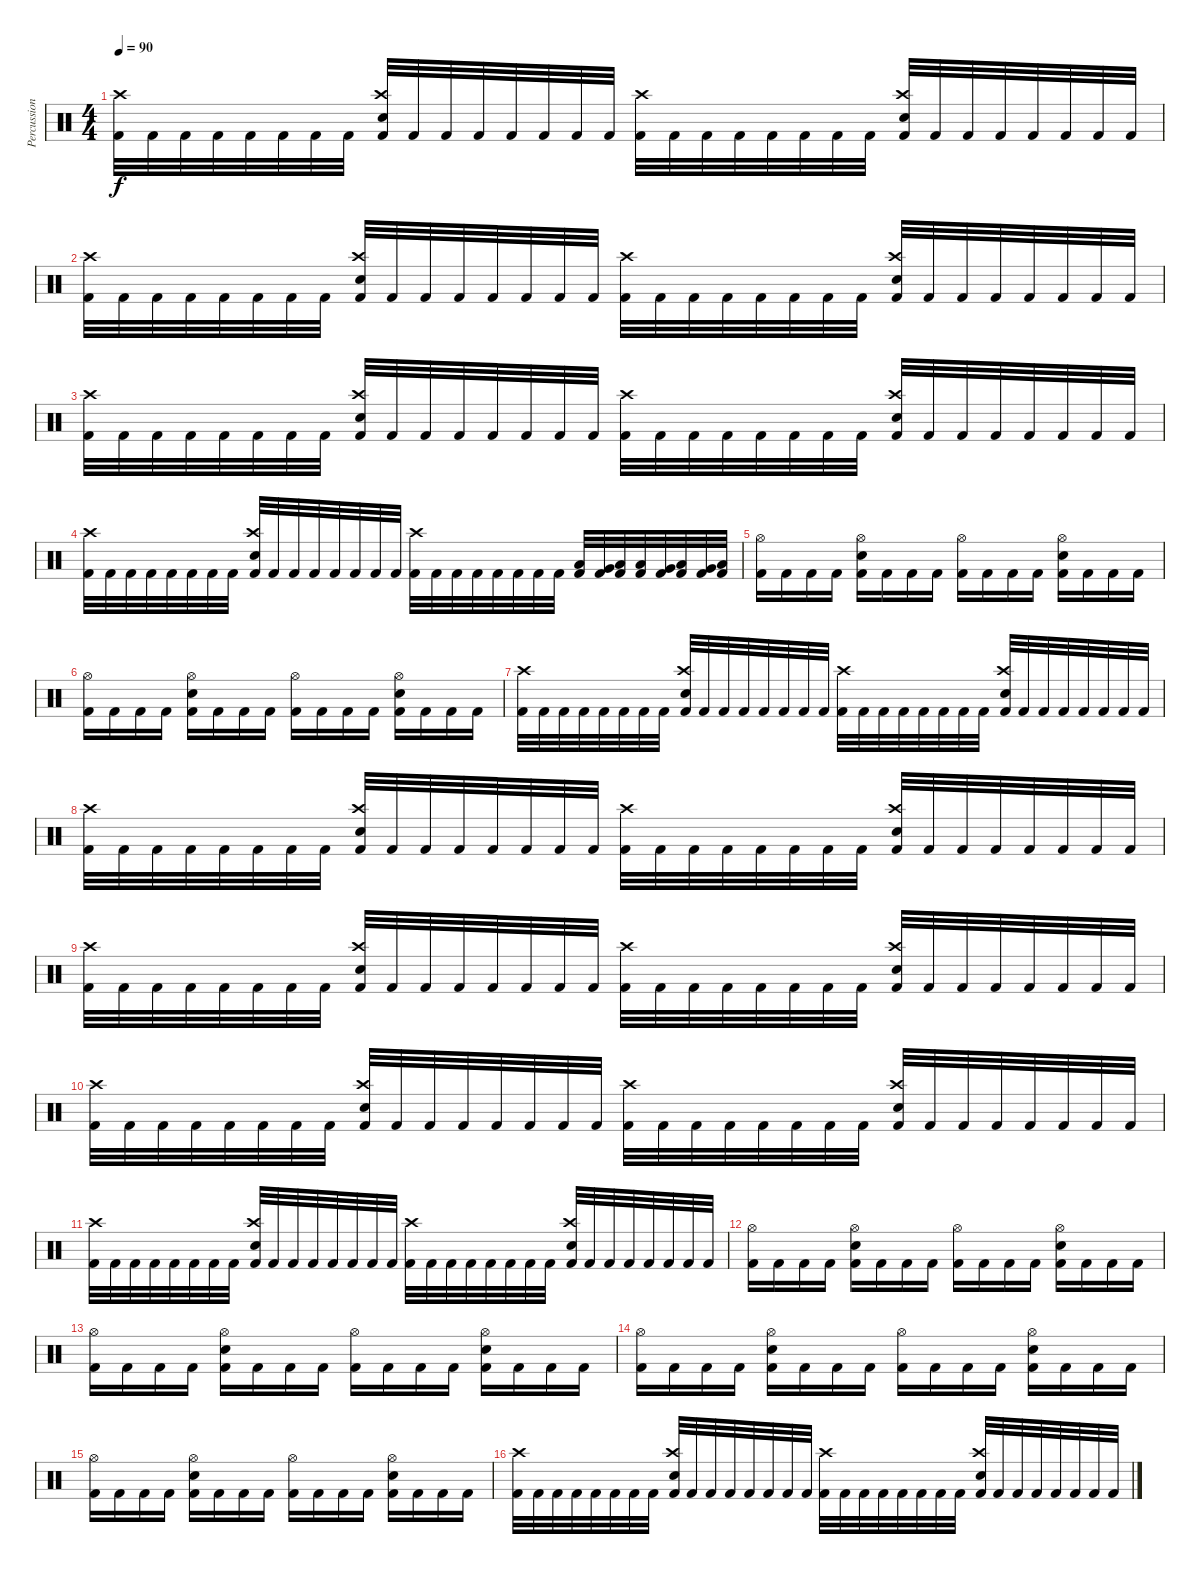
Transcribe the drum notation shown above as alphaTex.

\track ("Percussion" "Percussion") {instrument percussion}
\staff {score}
\articulation defaults
\ts (4 4)
\tempo 90
\clef neutral
\ks c
("Kick (hit) 2" "Crash high (hit)").32{dy f} "Kick (hit) 2".32 "Kick (hit) 2".32 "Kick (hit) 2".32 "Kick (hit) 2".32 "Kick (hit) 2".32 "Kick (hit) 2".32 "Kick (hit) 2".32 ("Kick (hit) 2" "Crash high (hit)" "Electric Snare (hit)").32 "Kick (hit) 2".32 "Kick (hit) 2".32 "Kick (hit) 2".32 "Kick (hit) 2".32 "Kick (hit) 2".32 "Kick (hit) 2".32 "Kick (hit) 2".32 ("Kick (hit) 2" "Crash high (hit)").32 "Kick (hit) 2".32 "Kick (hit) 2".32 "Kick (hit) 2".32 "Kick (hit) 2".32 "Kick (hit) 2".32 "Kick (hit) 2".32 "Kick (hit) 2".32 ("Kick (hit) 2" "Crash high (hit)" "Electric Snare (hit)").32 "Kick (hit) 2".32 "Kick (hit) 2".32 "Kick (hit) 2".32 "Kick (hit) 2".32 "Kick (hit) 2".32 "Kick (hit) 2".32 "Kick (hit) 2".32 |
("Kick (hit) 2" "Crash high (hit)").32 "Kick (hit) 2".32 "Kick (hit) 2".32 "Kick (hit) 2".32 "Kick (hit) 2".32 "Kick (hit) 2".32 "Kick (hit) 2".32 "Kick (hit) 2".32 ("Kick (hit) 2" "Crash high (hit)" "Electric Snare (hit)").32 "Kick (hit) 2".32 "Kick (hit) 2".32 "Kick (hit) 2".32 "Kick (hit) 2".32 "Kick (hit) 2".32 "Kick (hit) 2".32 "Kick (hit) 2".32 ("Kick (hit) 2" "Crash high (hit)").32 "Kick (hit) 2".32 "Kick (hit) 2".32 "Kick (hit) 2".32 "Kick (hit) 2".32 "Kick (hit) 2".32 "Kick (hit) 2".32 "Kick (hit) 2".32 ("Kick (hit) 2" "Crash high (hit)" "Electric Snare (hit)").32 "Kick (hit) 2".32 "Kick (hit) 2".32 "Kick (hit) 2".32 "Kick (hit) 2".32 "Kick (hit) 2".32 "Kick (hit) 2".32 "Kick (hit) 2".32 |
("Kick (hit) 2" "Crash high (hit)").32 "Kick (hit) 2".32 "Kick (hit) 2".32 "Kick (hit) 2".32 "Kick (hit) 2".32 "Kick (hit) 2".32 "Kick (hit) 2".32 "Kick (hit) 2".32 ("Kick (hit) 2" "Crash high (hit)" "Electric Snare (hit)").32 "Kick (hit) 2".32 "Kick (hit) 2".32 "Kick (hit) 2".32 "Kick (hit) 2".32 "Kick (hit) 2".32 "Kick (hit) 2".32 "Kick (hit) 2".32 ("Kick (hit) 2" "Crash high (hit)").32 "Kick (hit) 2".32 "Kick (hit) 2".32 "Kick (hit) 2".32 "Kick (hit) 2".32 "Kick (hit) 2".32 "Kick (hit) 2".32 "Kick (hit) 2".32 ("Kick (hit) 2" "Crash high (hit)" "Electric Snare (hit)").32 "Kick (hit) 2".32 "Kick (hit) 2".32 "Kick (hit) 2".32 "Kick (hit) 2".32 "Kick (hit) 2".32 "Kick (hit) 2".32 "Kick (hit) 2".32 |
("Kick (hit) 2" "Crash high (hit)").32 "Kick (hit) 2".32 "Kick (hit) 2".32 "Kick (hit) 2".32 "Kick (hit) 2".32 "Kick (hit) 2".32 "Kick (hit) 2".32 "Kick (hit) 2".32 ("Kick (hit) 2" "Crash high (hit)" "Electric Snare (hit)").32 "Kick (hit) 2".32 "Kick (hit) 2".32 "Kick (hit) 2".32 "Kick (hit) 2".32 "Kick (hit) 2".32 "Kick (hit) 2".32 "Kick (hit) 2".32 ("Kick (hit) 2" "Crash high (hit)").32 "Kick (hit) 2".32 "Kick (hit) 2".32 "Kick (hit) 2".32 "Kick (hit) 2".32 "Kick (hit) 2".32 "Kick (hit) 2".32 "Kick (hit) 2".32 ("Kick (hit) 2" "Low Tom (hit)").32 ("Kick (hit) 2" "Very Low Tom (hit)").32 ("Kick (hit) 2" "Low Floor Tom (hit)").32 ("Kick (hit) 2" "Low Tom (hit)").32 ("Kick (hit) 2" "Very Low Tom (hit)").32 ("Kick (hit) 2" "Low Floor Tom (hit)").32 ("Kick (hit) 2" "Very Low Tom (hit)").32 ("Kick (hit) 2" "Low Floor Tom (hit)").32 |
("Kick (hit) 2" "Hi-Hat (open)").16 "Kick (hit) 2".16 "Kick (hit) 2".16 "Kick (hit) 2".16 ("Kick (hit) 2" "Hi-Hat (open)" "Electric Snare (hit)").16 "Kick (hit) 2".16 "Kick (hit) 2".16 "Kick (hit) 2".16 ("Kick (hit) 2" "Hi-Hat (open)").16 "Kick (hit) 2".16 "Kick (hit) 2".16 "Kick (hit) 2".16 ("Kick (hit) 2" "Hi-Hat (open)" "Electric Snare (hit)").16 "Kick (hit) 2".16 "Kick (hit) 2".16 "Kick (hit) 2".16 |
("Kick (hit) 2" "Hi-Hat (open)").16 "Kick (hit) 2".16 "Kick (hit) 2".16 "Kick (hit) 2".16 ("Kick (hit) 2" "Hi-Hat (open)" "Electric Snare (hit)").16 "Kick (hit) 2".16 "Kick (hit) 2".16 "Kick (hit) 2".16 ("Kick (hit) 2" "Hi-Hat (open)").16 "Kick (hit) 2".16 "Kick (hit) 2".16 "Kick (hit) 2".16 ("Kick (hit) 2" "Hi-Hat (open)" "Electric Snare (hit)").16 "Kick (hit) 2".16 "Kick (hit) 2".16 "Kick (hit) 2".16 |
("Kick (hit) 2" "Crash high (hit)").32 "Kick (hit) 2".32 "Kick (hit) 2".32 "Kick (hit) 2".32 "Kick (hit) 2".32 "Kick (hit) 2".32 "Kick (hit) 2".32 "Kick (hit) 2".32 ("Kick (hit) 2" "Crash high (hit)" "Electric Snare (hit)").32 "Kick (hit) 2".32 "Kick (hit) 2".32 "Kick (hit) 2".32 "Kick (hit) 2".32 "Kick (hit) 2".32 "Kick (hit) 2".32 "Kick (hit) 2".32 ("Kick (hit) 2" "Crash high (hit)").32 "Kick (hit) 2".32 "Kick (hit) 2".32 "Kick (hit) 2".32 "Kick (hit) 2".32 "Kick (hit) 2".32 "Kick (hit) 2".32 "Kick (hit) 2".32 ("Kick (hit) 2" "Crash high (hit)" "Electric Snare (hit)").32 "Kick (hit) 2".32 "Kick (hit) 2".32 "Kick (hit) 2".32 "Kick (hit) 2".32 "Kick (hit) 2".32 "Kick (hit) 2".32 "Kick (hit) 2".32 |
("Kick (hit) 2" "Crash high (hit)").32 "Kick (hit) 2".32 "Kick (hit) 2".32 "Kick (hit) 2".32 "Kick (hit) 2".32 "Kick (hit) 2".32 "Kick (hit) 2".32 "Kick (hit) 2".32 ("Kick (hit) 2" "Crash high (hit)" "Electric Snare (hit)").32 "Kick (hit) 2".32 "Kick (hit) 2".32 "Kick (hit) 2".32 "Kick (hit) 2".32 "Kick (hit) 2".32 "Kick (hit) 2".32 "Kick (hit) 2".32 ("Kick (hit) 2" "Crash high (hit)").32 "Kick (hit) 2".32 "Kick (hit) 2".32 "Kick (hit) 2".32 "Kick (hit) 2".32 "Kick (hit) 2".32 "Kick (hit) 2".32 "Kick (hit) 2".32 ("Kick (hit) 2" "Crash high (hit)" "Electric Snare (hit)").32 "Kick (hit) 2".32 "Kick (hit) 2".32 "Kick (hit) 2".32 "Kick (hit) 2".32 "Kick (hit) 2".32 "Kick (hit) 2".32 "Kick (hit) 2".32 |
("Kick (hit) 2" "Crash high (hit)").32 "Kick (hit) 2".32 "Kick (hit) 2".32 "Kick (hit) 2".32 "Kick (hit) 2".32 "Kick (hit) 2".32 "Kick (hit) 2".32 "Kick (hit) 2".32 ("Kick (hit) 2" "Crash high (hit)" "Electric Snare (hit)").32 "Kick (hit) 2".32 "Kick (hit) 2".32 "Kick (hit) 2".32 "Kick (hit) 2".32 "Kick (hit) 2".32 "Kick (hit) 2".32 "Kick (hit) 2".32 ("Kick (hit) 2" "Crash high (hit)").32 "Kick (hit) 2".32 "Kick (hit) 2".32 "Kick (hit) 2".32 "Kick (hit) 2".32 "Kick (hit) 2".32 "Kick (hit) 2".32 "Kick (hit) 2".32 ("Kick (hit) 2" "Crash high (hit)" "Electric Snare (hit)").32 "Kick (hit) 2".32 "Kick (hit) 2".32 "Kick (hit) 2".32 "Kick (hit) 2".32 "Kick (hit) 2".32 "Kick (hit) 2".32 "Kick (hit) 2".32 |
("Kick (hit) 2" "Crash high (hit)").32 "Kick (hit) 2".32 "Kick (hit) 2".32 "Kick (hit) 2".32 "Kick (hit) 2".32 "Kick (hit) 2".32 "Kick (hit) 2".32 "Kick (hit) 2".32 ("Kick (hit) 2" "Crash high (hit)" "Electric Snare (hit)").32 "Kick (hit) 2".32 "Kick (hit) 2".32 "Kick (hit) 2".32 "Kick (hit) 2".32 "Kick (hit) 2".32 "Kick (hit) 2".32 "Kick (hit) 2".32 ("Kick (hit) 2" "Crash high (hit)").32 "Kick (hit) 2".32 "Kick (hit) 2".32 "Kick (hit) 2".32 "Kick (hit) 2".32 "Kick (hit) 2".32 "Kick (hit) 2".32 "Kick (hit) 2".32 ("Kick (hit) 2" "Crash high (hit)" "Electric Snare (hit)").32 "Kick (hit) 2".32 "Kick (hit) 2".32 "Kick (hit) 2".32 "Kick (hit) 2".32 "Kick (hit) 2".32 "Kick (hit) 2".32 "Kick (hit) 2".32 |
("Kick (hit) 2" "Crash high (hit)").32 "Kick (hit) 2".32 "Kick (hit) 2".32 "Kick (hit) 2".32 "Kick (hit) 2".32 "Kick (hit) 2".32 "Kick (hit) 2".32 "Kick (hit) 2".32 ("Kick (hit) 2" "Crash high (hit)" "Electric Snare (hit)").32 "Kick (hit) 2".32 "Kick (hit) 2".32 "Kick (hit) 2".32 "Kick (hit) 2".32 "Kick (hit) 2".32 "Kick (hit) 2".32 "Kick (hit) 2".32 ("Kick (hit) 2" "Crash high (hit)").32 "Kick (hit) 2".32 "Kick (hit) 2".32 "Kick (hit) 2".32 "Kick (hit) 2".32 "Kick (hit) 2".32 "Kick (hit) 2".32 "Kick (hit) 2".32 ("Kick (hit) 2" "Crash high (hit)" "Electric Snare (hit)").32 "Kick (hit) 2".32 "Kick (hit) 2".32 "Kick (hit) 2".32 "Kick (hit) 2".32 "Kick (hit) 2".32 "Kick (hit) 2".32 "Kick (hit) 2".32 |
("Kick (hit) 2" "Hi-Hat (open)").16 "Kick (hit) 2".16 "Kick (hit) 2".16 "Kick (hit) 2".16 ("Kick (hit) 2" "Hi-Hat (open)" "Electric Snare (hit)").16 "Kick (hit) 2".16 "Kick (hit) 2".16 "Kick (hit) 2".16 ("Kick (hit) 2" "Hi-Hat (open)").16 "Kick (hit) 2".16 "Kick (hit) 2".16 "Kick (hit) 2".16 ("Kick (hit) 2" "Hi-Hat (open)" "Electric Snare (hit)").16 "Kick (hit) 2".16 "Kick (hit) 2".16 "Kick (hit) 2".16 |
("Kick (hit) 2" "Hi-Hat (open)").16 "Kick (hit) 2".16 "Kick (hit) 2".16 "Kick (hit) 2".16 ("Kick (hit) 2" "Hi-Hat (open)" "Electric Snare (hit)").16 "Kick (hit) 2".16 "Kick (hit) 2".16 "Kick (hit) 2".16 ("Kick (hit) 2" "Hi-Hat (open)").16 "Kick (hit) 2".16 "Kick (hit) 2".16 "Kick (hit) 2".16 ("Kick (hit) 2" "Hi-Hat (open)" "Electric Snare (hit)").16 "Kick (hit) 2".16 "Kick (hit) 2".16 "Kick (hit) 2".16 |
("Kick (hit) 2" "Hi-Hat (open)").16 "Kick (hit) 2".16 "Kick (hit) 2".16 "Kick (hit) 2".16 ("Kick (hit) 2" "Hi-Hat (open)" "Electric Snare (hit)").16 "Kick (hit) 2".16 "Kick (hit) 2".16 "Kick (hit) 2".16 ("Kick (hit) 2" "Hi-Hat (open)").16 "Kick (hit) 2".16 "Kick (hit) 2".16 "Kick (hit) 2".16 ("Kick (hit) 2" "Hi-Hat (open)" "Electric Snare (hit)").16 "Kick (hit) 2".16 "Kick (hit) 2".16 "Kick (hit) 2".16 |
("Kick (hit) 2" "Hi-Hat (open)").16 "Kick (hit) 2".16 "Kick (hit) 2".16 "Kick (hit) 2".16 ("Kick (hit) 2" "Hi-Hat (open)" "Electric Snare (hit)").16 "Kick (hit) 2".16 "Kick (hit) 2".16 "Kick (hit) 2".16 ("Kick (hit) 2" "Hi-Hat (open)").16 "Kick (hit) 2".16 "Kick (hit) 2".16 "Kick (hit) 2".16 ("Kick (hit) 2" "Hi-Hat (open)" "Electric Snare (hit)").16 "Kick (hit) 2".16 "Kick (hit) 2".16 "Kick (hit) 2".16 |
("Kick (hit) 2" "Crash high (hit)").32 "Kick (hit) 2".32 "Kick (hit) 2".32 "Kick (hit) 2".32 "Kick (hit) 2".32 "Kick (hit) 2".32 "Kick (hit) 2".32 "Kick (hit) 2".32 ("Kick (hit) 2" "Crash high (hit)" "Electric Snare (hit)").32 "Kick (hit) 2".32 "Kick (hit) 2".32 "Kick (hit) 2".32 "Kick (hit) 2".32 "Kick (hit) 2".32 "Kick (hit) 2".32 "Kick (hit) 2".32 ("Kick (hit) 2" "Crash high (hit)").32 "Kick (hit) 2".32 "Kick (hit) 2".32 "Kick (hit) 2".32 "Kick (hit) 2".32 "Kick (hit) 2".32 "Kick (hit) 2".32 "Kick (hit) 2".32 ("Kick (hit) 2" "Crash high (hit)" "Electric Snare (hit)").32 "Kick (hit) 2".32 "Kick (hit) 2".32 "Kick (hit) 2".32 "Kick (hit) 2".32 "Kick (hit) 2".32 "Kick (hit) 2".32 "Kick (hit) 2".32
